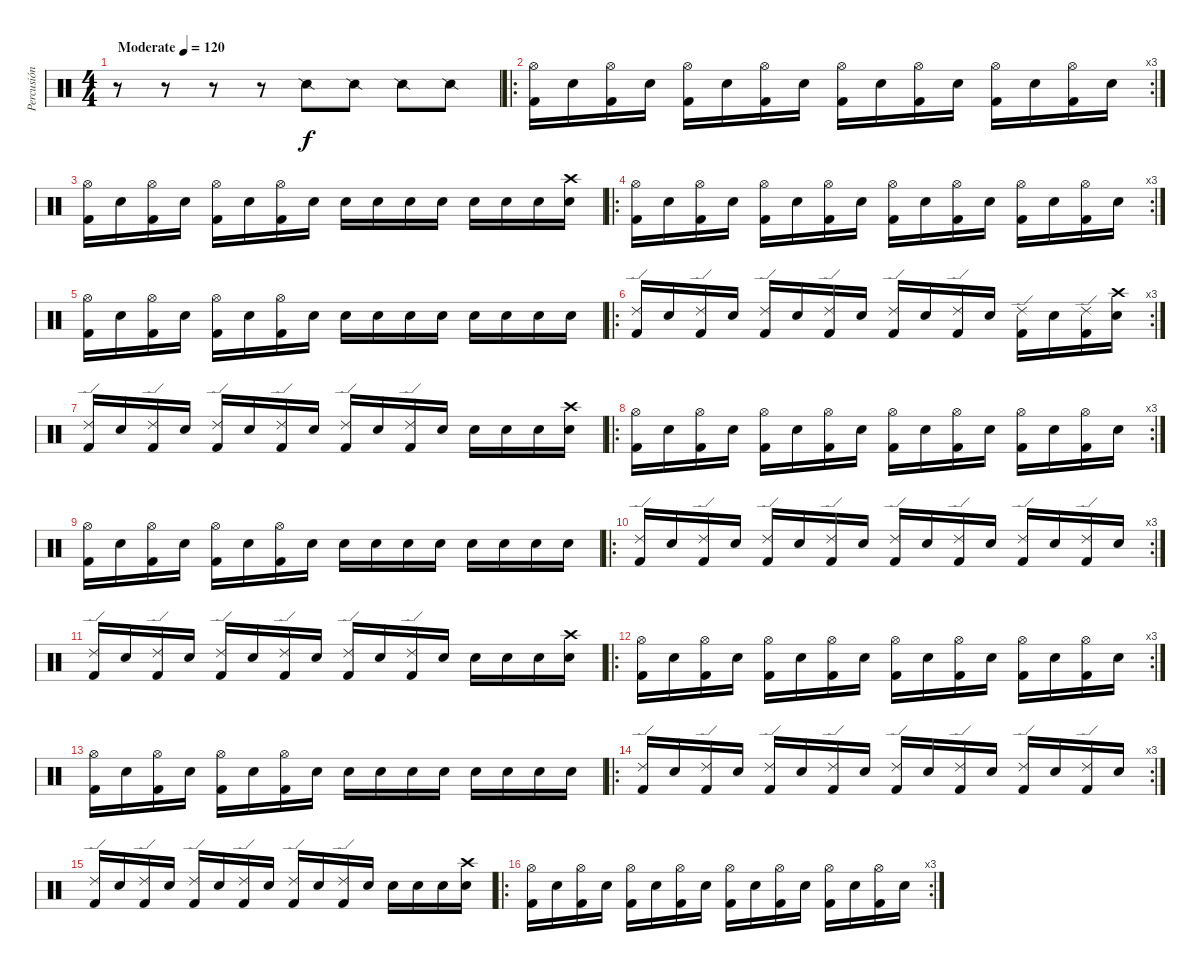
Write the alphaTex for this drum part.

\track ("Percusión" "Percusión") {instrument percussion}
\staff {score}
\articulation defaults
\ts (4 4)
\tempo (120 "Moderate")
\clef neutral
\ks c
r.8{dy f} r.8 r.8 r.8 "Snare (side stick) 2".8 "Snare (side stick) 2".8 "Snare (side stick) 2".8 "Snare (side stick) 2".8 |
\ro
\rc 3
("Hi-Hat (open)" "Kick (hit) 2").16 "Electric Snare (hit)".16 ("Hi-Hat (open)" "Kick (hit) 2").16 "Electric Snare (hit)".16 ("Hi-Hat (open)" "Kick (hit) 2").16 "Electric Snare (hit)".16 ("Hi-Hat (open)" "Kick (hit) 2").16 "Electric Snare (hit)".16 ("Hi-Hat (open)" "Kick (hit) 2").16 "Electric Snare (hit)".16 ("Hi-Hat (open)" "Kick (hit) 2").16 "Electric Snare (hit)".16 ("Hi-Hat (open)" "Kick (hit) 2").16 "Electric Snare (hit)".16 ("Hi-Hat (open)" "Kick (hit) 2").16 "Electric Snare (hit)".16 |
("Hi-Hat (open)" "Kick (hit) 2").16 "Electric Snare (hit)".16 ("Hi-Hat (open)" "Kick (hit) 2").16 "Electric Snare (hit)".16 ("Hi-Hat (open)" "Kick (hit) 2").16 "Electric Snare (hit)".16 ("Hi-Hat (open)" "Kick (hit) 2").16 "Electric Snare (hit)".16 "Electric Snare (hit)".16 "Electric Snare (hit)".16 "Electric Snare (hit)".16 "Electric Snare (hit)".16 "Electric Snare (hit)".16 "Electric Snare (hit)".16 "Electric Snare (hit)".16 ("Crash high (hit)" "Electric Snare (hit)").16 |
\ro
\rc 3
("Hi-Hat (open)" "Kick (hit) 2").16 "Electric Snare (hit)".16 ("Hi-Hat (open)" "Kick (hit) 2").16 "Electric Snare (hit)".16 ("Hi-Hat (open)" "Kick (hit) 2").16 "Electric Snare (hit)".16 ("Hi-Hat (open)" "Kick (hit) 2").16 "Electric Snare (hit)".16 ("Hi-Hat (open)" "Kick (hit) 2").16 "Electric Snare (hit)".16 ("Hi-Hat (open)" "Kick (hit) 2").16 "Electric Snare (hit)".16 ("Hi-Hat (open)" "Kick (hit) 2").16 "Electric Snare (hit)".16 ("Hi-Hat (open)" "Kick (hit) 2").16 "Electric Snare (hit)".16 |
("Hi-Hat (open)" "Kick (hit) 2").16 "Electric Snare (hit)".16 ("Hi-Hat (open)" "Kick (hit) 2").16 "Electric Snare (hit)".16 ("Hi-Hat (open)" "Kick (hit) 2").16 "Electric Snare (hit)".16 ("Hi-Hat (open)" "Kick (hit) 2").16 "Electric Snare (hit)".16 "Electric Snare (hit)".16 "Electric Snare (hit)".16 "Electric Snare (hit)".16 "Electric Snare (hit)".16 "Electric Snare (hit)".16 "Electric Snare (hit)".16 "Electric Snare (hit)".16 "Electric Snare (hit)".16 |
\ro
\rc 3
("Ride (edge) 2" "Kick (hit) 2").16 "Electric Snare (hit)".16 ("Ride (edge) 2" "Kick (hit) 2").16 "Electric Snare (hit)".16 ("Ride (edge) 2" "Kick (hit) 2").16 "Electric Snare (hit)".16 ("Ride (edge) 2" "Kick (hit) 2").16 "Electric Snare (hit)".16 ("Ride (edge) 2" "Kick (hit) 2").16 "Electric Snare (hit)".16 ("Ride (edge) 2" "Kick (hit) 2").16 "Electric Snare (hit)".16 ("Ride (edge) 2" "Kick (hit) 2").16 "Electric Snare (hit)".16 ("Ride (edge) 2" "Kick (hit) 2").16 ("Crash high (hit)" "Electric Snare (hit)").16 |
("Ride (edge) 2" "Kick (hit) 2").16 "Electric Snare (hit)".16 ("Ride (edge) 2" "Kick (hit) 2").16 "Electric Snare (hit)".16 ("Ride (edge) 2" "Kick (hit) 2").16 "Electric Snare (hit)".16 ("Ride (edge) 2" "Kick (hit) 2").16 "Electric Snare (hit)".16 ("Ride (edge) 2" "Kick (hit) 2").16 "Electric Snare (hit)".16 ("Ride (edge) 2" "Kick (hit) 2").16 "Electric Snare (hit)".16 "Electric Snare (hit)".16 "Electric Snare (hit)".16 "Electric Snare (hit)".16 ("Crash high (hit)" "Electric Snare (hit)").16 |
\ro
\rc 3
("Hi-Hat (open)" "Kick (hit) 2").16 "Electric Snare (hit)".16 ("Hi-Hat (open)" "Kick (hit) 2").16 "Electric Snare (hit)".16 ("Hi-Hat (open)" "Kick (hit) 2").16 "Electric Snare (hit)".16 ("Hi-Hat (open)" "Kick (hit) 2").16 "Electric Snare (hit)".16 ("Hi-Hat (open)" "Kick (hit) 2").16 "Electric Snare (hit)".16 ("Hi-Hat (open)" "Kick (hit) 2").16 "Electric Snare (hit)".16 ("Hi-Hat (open)" "Kick (hit) 2").16 "Electric Snare (hit)".16 ("Hi-Hat (open)" "Kick (hit) 2").16 "Electric Snare (hit)".16 |
("Hi-Hat (open)" "Kick (hit) 2").16 "Electric Snare (hit)".16 ("Hi-Hat (open)" "Kick (hit) 2").16 "Electric Snare (hit)".16 ("Hi-Hat (open)" "Kick (hit) 2").16 "Electric Snare (hit)".16 ("Hi-Hat (open)" "Kick (hit) 2").16 "Electric Snare (hit)".16 "Electric Snare (hit)".16 "Electric Snare (hit)".16 "Electric Snare (hit)".16 "Electric Snare (hit)".16 "Electric Snare (hit)".16 "Electric Snare (hit)".16 "Electric Snare (hit)".16 "Electric Snare (hit)".16 |
\ro
\rc 3
("Ride (edge) 2" "Kick (hit) 2").16 "Electric Snare (hit)".16 ("Ride (edge) 2" "Kick (hit) 2").16 "Electric Snare (hit)".16 ("Ride (edge) 2" "Kick (hit) 2").16 "Electric Snare (hit)".16 ("Ride (edge) 2" "Kick (hit) 2").16 "Electric Snare (hit)".16 ("Ride (edge) 2" "Kick (hit) 2").16 "Electric Snare (hit)".16 ("Ride (edge) 2" "Kick (hit) 2").16 "Electric Snare (hit)".16 ("Ride (edge) 2" "Kick (hit) 2").16 "Electric Snare (hit)".16 ("Ride (edge) 2" "Kick (hit) 2").16 "Electric Snare (hit)".16 |
("Ride (edge) 2" "Kick (hit) 2").16 "Electric Snare (hit)".16 ("Ride (edge) 2" "Kick (hit) 2").16 "Electric Snare (hit)".16 ("Ride (edge) 2" "Kick (hit) 2").16 "Electric Snare (hit)".16 ("Ride (edge) 2" "Kick (hit) 2").16 "Electric Snare (hit)".16 ("Ride (edge) 2" "Kick (hit) 2").16 "Electric Snare (hit)".16 ("Ride (edge) 2" "Kick (hit) 2").16 "Electric Snare (hit)".16 "Electric Snare (hit)".16 "Electric Snare (hit)".16 "Electric Snare (hit)".16 ("Crash high (hit)" "Electric Snare (hit)").16 |
\ro
\rc 3
("Hi-Hat (open)" "Kick (hit) 2").16 "Electric Snare (hit)".16 ("Hi-Hat (open)" "Kick (hit) 2").16 "Electric Snare (hit)".16 ("Hi-Hat (open)" "Kick (hit) 2").16 "Electric Snare (hit)".16 ("Hi-Hat (open)" "Kick (hit) 2").16 "Electric Snare (hit)".16 ("Hi-Hat (open)" "Kick (hit) 2").16 "Electric Snare (hit)".16 ("Hi-Hat (open)" "Kick (hit) 2").16 "Electric Snare (hit)".16 ("Hi-Hat (open)" "Kick (hit) 2").16 "Electric Snare (hit)".16 ("Hi-Hat (open)" "Kick (hit) 2").16 "Electric Snare (hit)".16 |
("Hi-Hat (open)" "Kick (hit) 2").16 "Electric Snare (hit)".16 ("Hi-Hat (open)" "Kick (hit) 2").16 "Electric Snare (hit)".16 ("Hi-Hat (open)" "Kick (hit) 2").16 "Electric Snare (hit)".16 ("Hi-Hat (open)" "Kick (hit) 2").16 "Electric Snare (hit)".16 "Electric Snare (hit)".16 "Electric Snare (hit)".16 "Electric Snare (hit)".16 "Electric Snare (hit)".16 "Electric Snare (hit)".16 "Electric Snare (hit)".16 "Electric Snare (hit)".16 "Electric Snare (hit)".16 |
\ro
\rc 3
("Ride (edge) 2" "Kick (hit) 2").16 "Electric Snare (hit)".16 ("Ride (edge) 2" "Kick (hit) 2").16 "Electric Snare (hit)".16 ("Ride (edge) 2" "Kick (hit) 2").16 "Electric Snare (hit)".16 ("Ride (edge) 2" "Kick (hit) 2").16 "Electric Snare (hit)".16 ("Ride (edge) 2" "Kick (hit) 2").16 "Electric Snare (hit)".16 ("Ride (edge) 2" "Kick (hit) 2").16 "Electric Snare (hit)".16 ("Ride (edge) 2" "Kick (hit) 2").16 "Electric Snare (hit)".16 ("Ride (edge) 2" "Kick (hit) 2").16 "Electric Snare (hit)".16 |
("Ride (edge) 2" "Kick (hit) 2").16 "Electric Snare (hit)".16 ("Ride (edge) 2" "Kick (hit) 2").16 "Electric Snare (hit)".16 ("Ride (edge) 2" "Kick (hit) 2").16 "Electric Snare (hit)".16 ("Ride (edge) 2" "Kick (hit) 2").16 "Electric Snare (hit)".16 ("Ride (edge) 2" "Kick (hit) 2").16 "Electric Snare (hit)".16 ("Ride (edge) 2" "Kick (hit) 2").16 "Electric Snare (hit)".16 "Electric Snare (hit)".16 "Electric Snare (hit)".16 "Electric Snare (hit)".16 ("Crash high (hit)" "Electric Snare (hit)").16 |
\ro
\rc 3
("Hi-Hat (open)" "Kick (hit) 2").16 "Electric Snare (hit)".16 ("Hi-Hat (open)" "Kick (hit) 2").16 "Electric Snare (hit)".16 ("Hi-Hat (open)" "Kick (hit) 2").16 "Electric Snare (hit)".16 ("Hi-Hat (open)" "Kick (hit) 2").16 "Electric Snare (hit)".16 ("Hi-Hat (open)" "Kick (hit) 2").16 "Electric Snare (hit)".16 ("Hi-Hat (open)" "Kick (hit) 2").16 "Electric Snare (hit)".16 ("Hi-Hat (open)" "Kick (hit) 2").16 "Electric Snare (hit)".16 ("Hi-Hat (open)" "Kick (hit) 2").16 "Electric Snare (hit)".16
